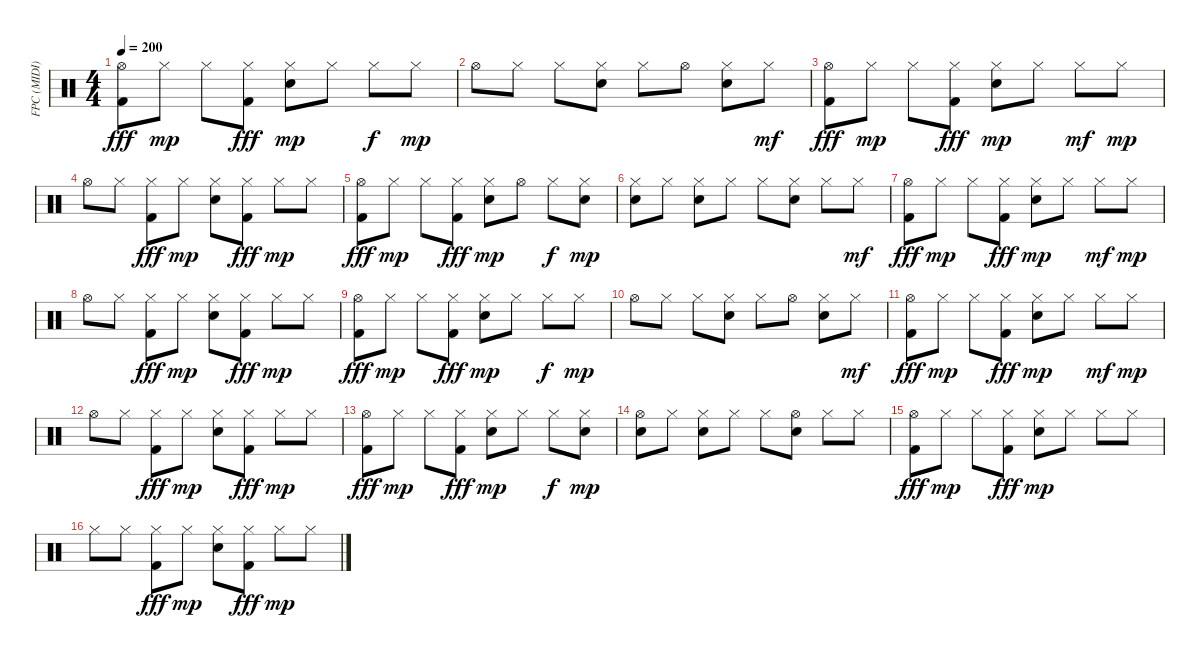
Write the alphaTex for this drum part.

\track ("FPC (MIDI)" "FPC (MIDI)") {instrument percussion}
\staff {score}
\articulation defaults
\ts (4 4)
\tempo 200
\clef neutral
\ks c
("Hi-Hat (open)" "Kick (hit) 2").8{dy fff} "Hi-Hat (closed)".8{dy mp} "Hi-Hat (closed)".8 ("Hi-Hat (closed)" "Kick (hit) 2").8{dy fff} ("Hi-Hat (closed)" "Electric Snare (hit)").8{dy mp} "Hi-Hat (closed)".8 "Hi-Hat (closed)".8{dy f} "Hi-Hat (closed)".8{dy mp} |
"Hi-Hat (open)".8 "Hi-Hat (closed)".8 "Hi-Hat (closed)".8 ("Hi-Hat (closed)" "Electric Snare (hit)").8 "Hi-Hat (closed)".8 "Hi-Hat (open)".8 ("Hi-Hat (closed)" "Electric Snare (hit)").8 "Hi-Hat (closed)".8{dy mf} |
("Hi-Hat (open)" "Kick (hit) 2").8{dy fff} "Hi-Hat (closed)".8{dy mp} "Hi-Hat (closed)".8 ("Hi-Hat (closed)" "Kick (hit) 2").8{dy fff} ("Hi-Hat (closed)" "Electric Snare (hit)").8{dy mp} "Hi-Hat (closed)".8 "Hi-Hat (closed)".8{dy mf} "Hi-Hat (closed)".8{dy mp} |
"Hi-Hat (open)".8 "Hi-Hat (closed)".8 ("Hi-Hat (closed)" "Kick (hit) 2").8{dy fff} "Hi-Hat (closed)".8{dy mp} ("Hi-Hat (closed)" "Electric Snare (hit)").8 ("Hi-Hat (closed)" "Kick (hit) 2").8{dy fff} "Hi-Hat (closed)".8{dy mp} "Hi-Hat (closed)".8 |
("Hi-Hat (open)" "Kick (hit) 2").8{dy fff} "Hi-Hat (closed)".8{dy mp} "Hi-Hat (closed)".8 ("Hi-Hat (closed)" "Kick (hit) 2").8{dy fff} ("Hi-Hat (closed)" "Electric Snare (hit)").8{dy mp} "Hi-Hat (open)".8 "Hi-Hat (closed)".8{dy f} ("Hi-Hat (closed)" "Electric Snare (hit)").8{dy mp} |
("Hi-Hat (closed)" "Electric Snare (hit)").8 "Hi-Hat (closed)".8 ("Hi-Hat (closed)" "Electric Snare (hit)").8 "Hi-Hat (closed)".8 "Hi-Hat (closed)".8 ("Hi-Hat (closed)" "Electric Snare (hit)").8 "Hi-Hat (closed)".8 "Hi-Hat (closed)".8{dy mf} |
("Hi-Hat (open)" "Kick (hit) 2").8{dy fff} "Hi-Hat (closed)".8{dy mp} "Hi-Hat (closed)".8 ("Hi-Hat (closed)" "Kick (hit) 2").8{dy fff} ("Hi-Hat (closed)" "Electric Snare (hit)").8{dy mp} "Hi-Hat (closed)".8 "Hi-Hat (closed)".8{dy mf} "Hi-Hat (closed)".8{dy mp} |
"Hi-Hat (open)".8 "Hi-Hat (closed)".8 ("Hi-Hat (closed)" "Kick (hit) 2").8{dy fff} "Hi-Hat (closed)".8{dy mp} ("Hi-Hat (closed)" "Electric Snare (hit)").8 ("Hi-Hat (closed)" "Kick (hit) 2").8{dy fff} "Hi-Hat (closed)".8{dy mp} "Hi-Hat (closed)".8 |
("Hi-Hat (open)" "Kick (hit) 2").8{dy fff} "Hi-Hat (closed)".8{dy mp} "Hi-Hat (closed)".8 ("Hi-Hat (closed)" "Kick (hit) 2").8{dy fff} ("Hi-Hat (closed)" "Electric Snare (hit)").8{dy mp} "Hi-Hat (closed)".8 "Hi-Hat (closed)".8{dy f} "Hi-Hat (closed)".8{dy mp} |
"Hi-Hat (open)".8 "Hi-Hat (closed)".8 "Hi-Hat (closed)".8 ("Hi-Hat (closed)" "Electric Snare (hit)").8 "Hi-Hat (closed)".8 "Hi-Hat (open)".8 ("Hi-Hat (closed)" "Electric Snare (hit)").8 "Hi-Hat (closed)".8{dy mf} |
("Hi-Hat (open)" "Kick (hit) 2").8{dy fff} "Hi-Hat (closed)".8{dy mp} "Hi-Hat (closed)".8 ("Hi-Hat (closed)" "Kick (hit) 2").8{dy fff} ("Hi-Hat (closed)" "Electric Snare (hit)").8{dy mp} "Hi-Hat (closed)".8 "Hi-Hat (closed)".8{dy mf} "Hi-Hat (closed)".8{dy mp} |
"Hi-Hat (open)".8 "Hi-Hat (closed)".8 ("Hi-Hat (closed)" "Kick (hit) 2").8{dy fff} "Hi-Hat (closed)".8{dy mp} ("Hi-Hat (closed)" "Electric Snare (hit)").8 ("Hi-Hat (closed)" "Kick (hit) 2").8{dy fff} "Hi-Hat (closed)".8{dy mp} "Hi-Hat (closed)".8 |
("Hi-Hat (open)" "Kick (hit) 2").8{dy fff} "Hi-Hat (closed)".8{dy mp} "Hi-Hat (closed)".8 ("Hi-Hat (closed)" "Kick (hit) 2").8{dy fff} ("Hi-Hat (closed)" "Electric Snare (hit)").8{dy mp} "Hi-Hat (closed)".8 "Hi-Hat (closed)".8{dy f} ("Hi-Hat (closed)" "Electric Snare (hit)").8{dy mp} |
("Hi-Hat (open)" "Electric Snare (hit)").8 "Hi-Hat (closed)".8 ("Hi-Hat (closed)" "Electric Snare (hit)").8 "Hi-Hat (closed)".8 "Hi-Hat (closed)".8 ("Hi-Hat (open)" "Electric Snare (hit)").8 "Hi-Hat (closed)".8 "Hi-Hat (closed)".8 |
("Hi-Hat (open)" "Kick (hit) 2").8{dy fff} "Hi-Hat (closed)".8{dy mp} "Hi-Hat (closed)".8 ("Hi-Hat (closed)" "Kick (hit) 2").8{dy fff} ("Hi-Hat (closed)" "Hand Clap (hit)").8{dy mp} "Hi-Hat (closed)".8 "Hi-Hat (closed)".8 "Hi-Hat (closed)".8 |
"Hi-Hat (closed)".8 "Hi-Hat (closed)".8 ("Hi-Hat (closed)" "Kick (hit) 2").8{dy fff} "Hi-Hat (closed)".8{dy mp} ("Hi-Hat (closed)" "Hand Clap (hit)").8 ("Hi-Hat (closed)" "Kick (hit) 2").8{dy fff} "Hi-Hat (closed)".8{dy mp} "Hi-Hat (closed)".8
